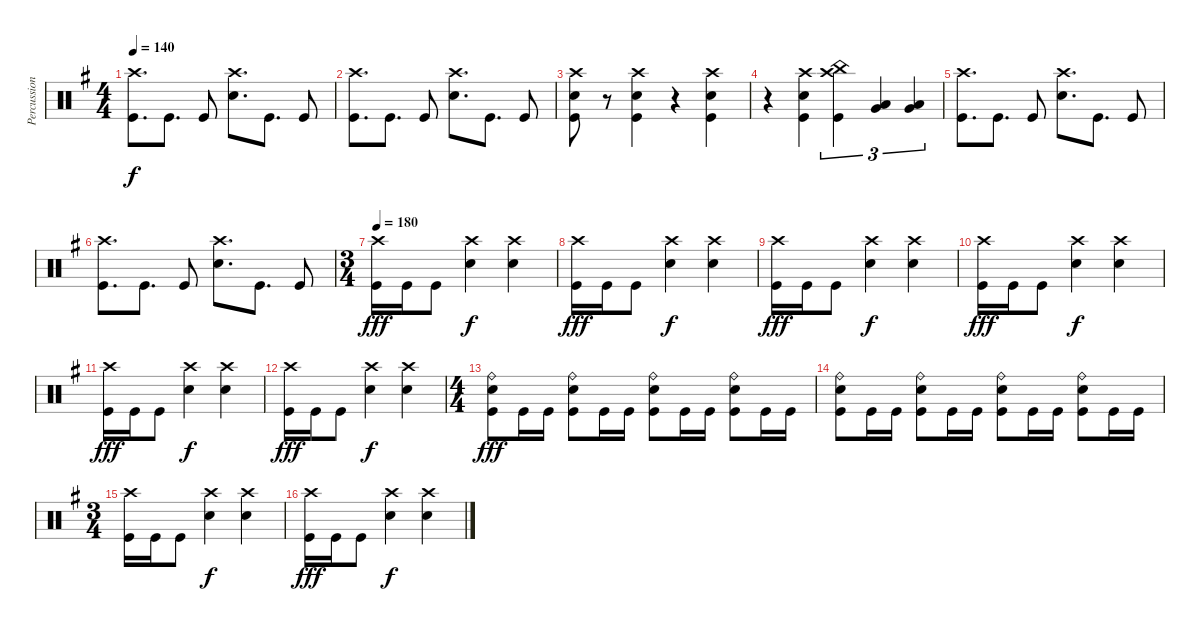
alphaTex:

\track ("Percussion" "Percussion") {instrument percussion}
\staff {score}
\articulation defaults
\ts (4 4)
\tempo 140
\clef neutral
\ks eminor
("Crash high (hit)" "Kick (hit)").8{d dy f} "Kick (hit)".8{d} "Kick (hit)".8 ("Crash high (hit)" "Snare (hit) 2").8{d} "Kick (hit)".8{d} "Kick (hit)".8 |
("Crash high (hit)" "Kick (hit)").8{d} "Kick (hit)".8{d} "Kick (hit)".8 ("Crash high (hit)" "Snare (hit) 2").8{d} "Kick (hit)".8{d} "Kick (hit)".8 |
("Crash high (hit)" "Snare (hit) 2" "Kick (hit)").8 r.8 ("Crash high (hit)" "Snare (hit) 2" "Kick (hit)").4 r.4 ("Crash high (hit)" "Snare (hit) 2" "Kick (hit)").4 |
r.4 ("Crash high (hit)" "Snare (hit) 2" "Kick (hit)").4 ("Crash high (hit)" "China (hit)" "Kick (hit)").4{tu (3 2)} ("Low Tom (hit)" "Very Low Tom (hit)").4{tu (3 2)} ("Very Low Tom (hit)" "Low Floor Tom (hit)").4{tu (3 2)} |
("Crash high (hit)" "Kick (hit)").8{d} "Kick (hit)".8{d} "Kick (hit)".8 ("Crash high (hit)" "Snare (hit) 2").8{d} "Kick (hit)".8{d} "Kick (hit)".8 |
("Crash high (hit)" "Kick (hit)").8{d} "Kick (hit)".8{d} "Kick (hit)".8 ("Crash high (hit)" "Snare (hit) 2").8{d} "Kick (hit)".8{d} "Kick (hit)".8 |
\ts (3 4)
\tempo 180
("Crash high (hit)" "Kick (hit)").16{dy fff} "Kick (hit)".16 "Kick (hit)".8 ("Crash high (hit)" "Snare (hit) 2").4{dy f} ("Crash high (hit)" "Snare (hit) 2").4 |
("Crash high (hit)" "Kick (hit)").16{dy fff} "Kick (hit)".16 "Kick (hit)".8 ("Crash high (hit)" "Snare (hit) 2").4{dy f} ("Crash high (hit)" "Snare (hit) 2").4 |
("Crash high (hit)" "Kick (hit)").16{dy fff} "Kick (hit)".16 "Kick (hit)".8 ("Crash high (hit)" "Snare (hit) 2").4{dy f} ("Crash high (hit)" "Snare (hit) 2").4 |
("Crash high (hit)" "Kick (hit)").16{dy fff} "Kick (hit)".16 "Kick (hit)".8 ("Crash high (hit)" "Snare (hit) 2").4{dy f} ("Crash high (hit)" "Snare (hit) 2").4 |
("Crash high (hit)" "Kick (hit)").16{dy fff} "Kick (hit)".16 "Kick (hit)".8 ("Crash high (hit)" "Snare (hit) 2").4{dy f} ("Crash high (hit)" "Snare (hit) 2").4 |
("Crash high (hit)" "Kick (hit)").16{dy fff} "Kick (hit)".16 "Kick (hit)".8 ("Crash high (hit)" "Snare (hit) 2").4{dy f} ("Crash high (hit)" "Snare (hit) 2").4 |
\ts (4 4)
("Ride (bell)" "Snare (hit) 2" "Kick (hit)").8{dy fff} "Kick (hit)".16 "Kick (hit)".16 ("Ride (bell)" "Snare (hit) 2" "Kick (hit)").8 "Kick (hit)".16 "Kick (hit)".16 ("Ride (bell)" "Snare (hit) 2" "Kick (hit)").8 "Kick (hit)".16 "Kick (hit)".16 ("Ride (bell)" "Snare (hit) 2" "Kick (hit)").8 "Kick (hit)".16 "Kick (hit)".16 |
("Ride (bell)" "Snare (hit) 2" "Kick (hit)").8 "Kick (hit)".16 "Kick (hit)".16 ("Ride (bell)" "Snare (hit) 2" "Kick (hit)").8 "Kick (hit)".16 "Kick (hit)".16 ("Ride (bell)" "Snare (hit) 2" "Kick (hit)").8 "Kick (hit)".16 "Kick (hit)".16 ("Ride (bell)" "Snare (hit) 2" "Kick (hit)").8 "Kick (hit)".16 "Kick (hit)".16 |
\ts (3 4)
("Crash high (hit)" "Kick (hit)").16 "Kick (hit)".16 "Kick (hit)".8 ("Crash high (hit)" "Snare (hit) 2").4{dy f} ("Crash high (hit)" "Snare (hit) 2").4 |
("Crash high (hit)" "Kick (hit)").16{dy fff} "Kick (hit)".16 "Kick (hit)".8 ("Crash high (hit)" "Snare (hit) 2").4{dy f} ("Crash high (hit)" "Snare (hit) 2").4
